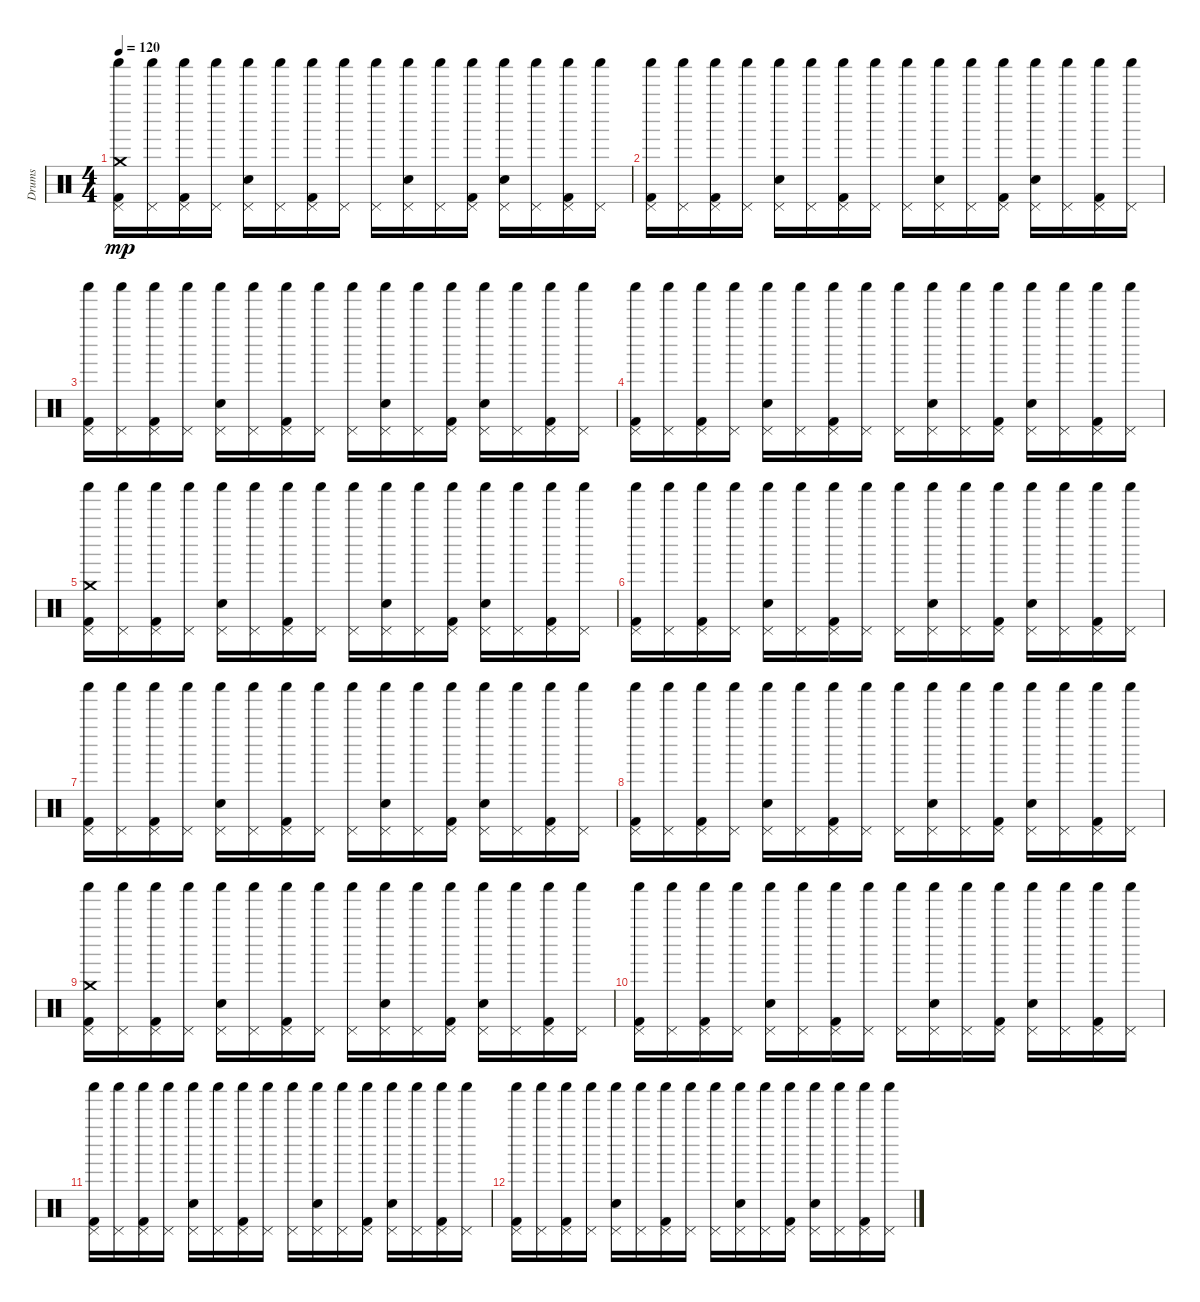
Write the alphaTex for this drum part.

\track ("Drums" "Drums") {instrument percussion}
\staff {score}
\articulation defaults
\ts (4 4)
\tempo 120
\clef neutral
\ks c
("Shaker (hit)" "Pedal Hi-Hat (hit)" "Crash medium (hit)" "Kick (hit) 2").16{dy mp} ("Shaker (hit)" "Pedal Hi-Hat (hit)").16 ("Shaker (hit)" "Pedal Hi-Hat (hit)" "Kick (hit) 2").16 ("Shaker (hit)" "Pedal Hi-Hat (hit)").16 ("Shaker (hit)" "Pedal Hi-Hat (hit)" "Electric Snare (hit)").16 ("Shaker (hit)" "Pedal Hi-Hat (hit)").16 ("Shaker (hit)" "Pedal Hi-Hat (hit)" "Kick (hit) 2").16 ("Shaker (hit)" "Pedal Hi-Hat (hit)").16 ("Shaker (hit)" "Pedal Hi-Hat (hit)").16 ("Shaker (hit)" "Pedal Hi-Hat (hit)" "Electric Snare (hit)").16 ("Shaker (hit)" "Pedal Hi-Hat (hit)").16 ("Shaker (hit)" "Pedal Hi-Hat (hit)" "Kick (hit) 2").16 ("Shaker (hit)" "Pedal Hi-Hat (hit)" "Electric Snare (hit)").16 ("Shaker (hit)" "Pedal Hi-Hat (hit)").16 ("Shaker (hit)" "Pedal Hi-Hat (hit)" "Kick (hit) 2").16 ("Shaker (hit)" "Pedal Hi-Hat (hit)").16 |
("Shaker (hit)" "Pedal Hi-Hat (hit)" "Kick (hit) 2").16 ("Shaker (hit)" "Pedal Hi-Hat (hit)").16 ("Shaker (hit)" "Pedal Hi-Hat (hit)" "Kick (hit) 2").16 ("Shaker (hit)" "Pedal Hi-Hat (hit)").16 ("Shaker (hit)" "Pedal Hi-Hat (hit)" "Electric Snare (hit)").16 ("Shaker (hit)" "Pedal Hi-Hat (hit)").16 ("Shaker (hit)" "Pedal Hi-Hat (hit)" "Kick (hit) 2").16 ("Shaker (hit)" "Pedal Hi-Hat (hit)").16 ("Shaker (hit)" "Pedal Hi-Hat (hit)").16 ("Shaker (hit)" "Pedal Hi-Hat (hit)" "Electric Snare (hit)").16 ("Shaker (hit)" "Pedal Hi-Hat (hit)").16 ("Shaker (hit)" "Pedal Hi-Hat (hit)" "Kick (hit) 2").16 ("Shaker (hit)" "Pedal Hi-Hat (hit)" "Electric Snare (hit)").16 ("Shaker (hit)" "Pedal Hi-Hat (hit)").16 ("Shaker (hit)" "Pedal Hi-Hat (hit)" "Kick (hit) 2").16 ("Shaker (hit)" "Pedal Hi-Hat (hit)").16 |
("Shaker (hit)" "Pedal Hi-Hat (hit)" "Kick (hit) 2").16 ("Shaker (hit)" "Pedal Hi-Hat (hit)").16 ("Shaker (hit)" "Pedal Hi-Hat (hit)" "Kick (hit) 2").16 ("Shaker (hit)" "Pedal Hi-Hat (hit)").16 ("Shaker (hit)" "Pedal Hi-Hat (hit)" "Electric Snare (hit)").16 ("Shaker (hit)" "Pedal Hi-Hat (hit)").16 ("Shaker (hit)" "Pedal Hi-Hat (hit)" "Kick (hit) 2").16 ("Shaker (hit)" "Pedal Hi-Hat (hit)").16 ("Shaker (hit)" "Pedal Hi-Hat (hit)").16 ("Shaker (hit)" "Pedal Hi-Hat (hit)" "Electric Snare (hit)").16 ("Shaker (hit)" "Pedal Hi-Hat (hit)").16 ("Shaker (hit)" "Pedal Hi-Hat (hit)" "Kick (hit) 2").16 ("Shaker (hit)" "Pedal Hi-Hat (hit)" "Electric Snare (hit)").16 ("Shaker (hit)" "Pedal Hi-Hat (hit)").16 ("Shaker (hit)" "Pedal Hi-Hat (hit)" "Kick (hit) 2").16 ("Shaker (hit)" "Pedal Hi-Hat (hit)").16 |
("Shaker (hit)" "Pedal Hi-Hat (hit)" "Kick (hit) 2").16 ("Shaker (hit)" "Pedal Hi-Hat (hit)").16 ("Shaker (hit)" "Pedal Hi-Hat (hit)" "Kick (hit) 2").16 ("Shaker (hit)" "Pedal Hi-Hat (hit)").16 ("Shaker (hit)" "Pedal Hi-Hat (hit)" "Electric Snare (hit)").16 ("Shaker (hit)" "Pedal Hi-Hat (hit)").16 ("Shaker (hit)" "Pedal Hi-Hat (hit)" "Kick (hit) 2").16 ("Shaker (hit)" "Pedal Hi-Hat (hit)").16 ("Shaker (hit)" "Pedal Hi-Hat (hit)").16 ("Shaker (hit)" "Pedal Hi-Hat (hit)" "Electric Snare (hit)").16 ("Shaker (hit)" "Pedal Hi-Hat (hit)").16 ("Shaker (hit)" "Pedal Hi-Hat (hit)" "Kick (hit) 2").16 ("Shaker (hit)" "Pedal Hi-Hat (hit)" "Electric Snare (hit)").16 ("Shaker (hit)" "Pedal Hi-Hat (hit)").16 ("Shaker (hit)" "Pedal Hi-Hat (hit)" "Kick (hit) 2").16 ("Shaker (hit)" "Pedal Hi-Hat (hit)").16 |
("Shaker (hit)" "Pedal Hi-Hat (hit)" "Crash medium (hit)" "Kick (hit) 2").16 ("Shaker (hit)" "Pedal Hi-Hat (hit)").16 ("Shaker (hit)" "Pedal Hi-Hat (hit)" "Kick (hit) 2").16 ("Shaker (hit)" "Pedal Hi-Hat (hit)").16 ("Shaker (hit)" "Pedal Hi-Hat (hit)" "Electric Snare (hit)").16 ("Shaker (hit)" "Pedal Hi-Hat (hit)").16 ("Shaker (hit)" "Pedal Hi-Hat (hit)" "Kick (hit) 2").16 ("Shaker (hit)" "Pedal Hi-Hat (hit)").16 ("Shaker (hit)" "Pedal Hi-Hat (hit)").16 ("Shaker (hit)" "Pedal Hi-Hat (hit)" "Electric Snare (hit)").16 ("Shaker (hit)" "Pedal Hi-Hat (hit)").16 ("Shaker (hit)" "Pedal Hi-Hat (hit)" "Kick (hit) 2").16 ("Shaker (hit)" "Pedal Hi-Hat (hit)" "Electric Snare (hit)").16 ("Shaker (hit)" "Pedal Hi-Hat (hit)").16 ("Shaker (hit)" "Pedal Hi-Hat (hit)" "Kick (hit) 2").16 ("Shaker (hit)" "Pedal Hi-Hat (hit)").16 |
("Shaker (hit)" "Pedal Hi-Hat (hit)" "Kick (hit) 2").16 ("Shaker (hit)" "Pedal Hi-Hat (hit)").16 ("Shaker (hit)" "Pedal Hi-Hat (hit)" "Kick (hit) 2").16 ("Shaker (hit)" "Pedal Hi-Hat (hit)").16 ("Shaker (hit)" "Pedal Hi-Hat (hit)" "Electric Snare (hit)").16 ("Shaker (hit)" "Pedal Hi-Hat (hit)").16 ("Shaker (hit)" "Pedal Hi-Hat (hit)" "Kick (hit) 2").16 ("Shaker (hit)" "Pedal Hi-Hat (hit)").16 ("Shaker (hit)" "Pedal Hi-Hat (hit)").16 ("Shaker (hit)" "Pedal Hi-Hat (hit)" "Electric Snare (hit)").16 ("Shaker (hit)" "Pedal Hi-Hat (hit)").16 ("Shaker (hit)" "Pedal Hi-Hat (hit)" "Kick (hit) 2").16 ("Shaker (hit)" "Pedal Hi-Hat (hit)" "Electric Snare (hit)").16 ("Shaker (hit)" "Pedal Hi-Hat (hit)").16 ("Shaker (hit)" "Pedal Hi-Hat (hit)" "Kick (hit) 2").16 ("Shaker (hit)" "Pedal Hi-Hat (hit)").16 |
("Shaker (hit)" "Pedal Hi-Hat (hit)" "Kick (hit) 2").16 ("Shaker (hit)" "Pedal Hi-Hat (hit)").16 ("Shaker (hit)" "Pedal Hi-Hat (hit)" "Kick (hit) 2").16 ("Shaker (hit)" "Pedal Hi-Hat (hit)").16 ("Shaker (hit)" "Pedal Hi-Hat (hit)" "Electric Snare (hit)").16 ("Shaker (hit)" "Pedal Hi-Hat (hit)").16 ("Shaker (hit)" "Pedal Hi-Hat (hit)" "Kick (hit) 2").16 ("Shaker (hit)" "Pedal Hi-Hat (hit)").16 ("Shaker (hit)" "Pedal Hi-Hat (hit)").16 ("Shaker (hit)" "Pedal Hi-Hat (hit)" "Electric Snare (hit)").16 ("Shaker (hit)" "Pedal Hi-Hat (hit)").16 ("Shaker (hit)" "Pedal Hi-Hat (hit)" "Kick (hit) 2").16 ("Shaker (hit)" "Pedal Hi-Hat (hit)" "Electric Snare (hit)").16 ("Shaker (hit)" "Pedal Hi-Hat (hit)").16 ("Shaker (hit)" "Pedal Hi-Hat (hit)" "Kick (hit) 2").16 ("Shaker (hit)" "Pedal Hi-Hat (hit)").16 |
("Shaker (hit)" "Pedal Hi-Hat (hit)" "Kick (hit) 2").16 ("Shaker (hit)" "Pedal Hi-Hat (hit)").16 ("Shaker (hit)" "Pedal Hi-Hat (hit)" "Kick (hit) 2").16 ("Shaker (hit)" "Pedal Hi-Hat (hit)").16 ("Shaker (hit)" "Pedal Hi-Hat (hit)" "Electric Snare (hit)").16 ("Shaker (hit)" "Pedal Hi-Hat (hit)").16 ("Shaker (hit)" "Pedal Hi-Hat (hit)" "Kick (hit) 2").16 ("Shaker (hit)" "Pedal Hi-Hat (hit)").16 ("Shaker (hit)" "Pedal Hi-Hat (hit)").16 ("Shaker (hit)" "Pedal Hi-Hat (hit)" "Electric Snare (hit)").16 ("Shaker (hit)" "Pedal Hi-Hat (hit)").16 ("Shaker (hit)" "Pedal Hi-Hat (hit)" "Kick (hit) 2").16 ("Shaker (hit)" "Pedal Hi-Hat (hit)" "Electric Snare (hit)").16 ("Shaker (hit)" "Pedal Hi-Hat (hit)").16 ("Shaker (hit)" "Pedal Hi-Hat (hit)" "Kick (hit) 2").16 ("Shaker (hit)" "Pedal Hi-Hat (hit)").16 |
("Shaker (hit)" "Pedal Hi-Hat (hit)" "Crash medium (hit)" "Kick (hit) 2").16 ("Shaker (hit)" "Pedal Hi-Hat (hit)").16 ("Shaker (hit)" "Pedal Hi-Hat (hit)" "Kick (hit) 2").16 ("Shaker (hit)" "Pedal Hi-Hat (hit)").16 ("Shaker (hit)" "Pedal Hi-Hat (hit)" "Electric Snare (hit)").16 ("Shaker (hit)" "Pedal Hi-Hat (hit)").16 ("Shaker (hit)" "Pedal Hi-Hat (hit)" "Kick (hit) 2").16 ("Shaker (hit)" "Pedal Hi-Hat (hit)").16 ("Shaker (hit)" "Pedal Hi-Hat (hit)").16 ("Shaker (hit)" "Pedal Hi-Hat (hit)" "Electric Snare (hit)").16 ("Shaker (hit)" "Pedal Hi-Hat (hit)").16 ("Shaker (hit)" "Pedal Hi-Hat (hit)" "Kick (hit) 2").16 ("Shaker (hit)" "Pedal Hi-Hat (hit)" "Electric Snare (hit)").16 ("Shaker (hit)" "Pedal Hi-Hat (hit)").16 ("Shaker (hit)" "Pedal Hi-Hat (hit)" "Kick (hit) 2").16 ("Shaker (hit)" "Pedal Hi-Hat (hit)").16 |
("Shaker (hit)" "Pedal Hi-Hat (hit)" "Kick (hit) 2").16 ("Shaker (hit)" "Pedal Hi-Hat (hit)").16 ("Shaker (hit)" "Pedal Hi-Hat (hit)" "Kick (hit) 2").16 ("Shaker (hit)" "Pedal Hi-Hat (hit)").16 ("Shaker (hit)" "Pedal Hi-Hat (hit)" "Electric Snare (hit)").16 ("Shaker (hit)" "Pedal Hi-Hat (hit)").16 ("Shaker (hit)" "Pedal Hi-Hat (hit)" "Kick (hit) 2").16 ("Shaker (hit)" "Pedal Hi-Hat (hit)").16 ("Shaker (hit)" "Pedal Hi-Hat (hit)").16 ("Shaker (hit)" "Pedal Hi-Hat (hit)" "Electric Snare (hit)").16 ("Shaker (hit)" "Pedal Hi-Hat (hit)").16 ("Shaker (hit)" "Pedal Hi-Hat (hit)" "Kick (hit) 2").16 ("Shaker (hit)" "Pedal Hi-Hat (hit)" "Electric Snare (hit)").16 ("Shaker (hit)" "Pedal Hi-Hat (hit)").16 ("Shaker (hit)" "Pedal Hi-Hat (hit)" "Kick (hit) 2").16 ("Shaker (hit)" "Pedal Hi-Hat (hit)").16 |
("Shaker (hit)" "Pedal Hi-Hat (hit)" "Kick (hit) 2").16 ("Shaker (hit)" "Pedal Hi-Hat (hit)").16 ("Shaker (hit)" "Pedal Hi-Hat (hit)" "Kick (hit) 2").16 ("Shaker (hit)" "Pedal Hi-Hat (hit)").16 ("Shaker (hit)" "Pedal Hi-Hat (hit)" "Electric Snare (hit)").16 ("Shaker (hit)" "Pedal Hi-Hat (hit)").16 ("Shaker (hit)" "Pedal Hi-Hat (hit)" "Kick (hit) 2").16 ("Shaker (hit)" "Pedal Hi-Hat (hit)").16 ("Shaker (hit)" "Pedal Hi-Hat (hit)").16 ("Shaker (hit)" "Pedal Hi-Hat (hit)" "Electric Snare (hit)").16 ("Shaker (hit)" "Pedal Hi-Hat (hit)").16 ("Shaker (hit)" "Pedal Hi-Hat (hit)" "Kick (hit) 2").16 ("Shaker (hit)" "Pedal Hi-Hat (hit)" "Electric Snare (hit)").16 ("Shaker (hit)" "Pedal Hi-Hat (hit)").16 ("Shaker (hit)" "Pedal Hi-Hat (hit)" "Kick (hit) 2").16 ("Shaker (hit)" "Pedal Hi-Hat (hit)").16 |
("Shaker (hit)" "Pedal Hi-Hat (hit)" "Kick (hit) 2").16 ("Shaker (hit)" "Pedal Hi-Hat (hit)").16 ("Shaker (hit)" "Pedal Hi-Hat (hit)" "Kick (hit) 2").16 ("Shaker (hit)" "Pedal Hi-Hat (hit)").16 ("Shaker (hit)" "Pedal Hi-Hat (hit)" "Electric Snare (hit)").16 ("Shaker (hit)" "Pedal Hi-Hat (hit)").16 ("Shaker (hit)" "Pedal Hi-Hat (hit)" "Kick (hit) 2").16 ("Shaker (hit)" "Pedal Hi-Hat (hit)").16 ("Shaker (hit)" "Pedal Hi-Hat (hit)").16 ("Shaker (hit)" "Pedal Hi-Hat (hit)" "Electric Snare (hit)").16 ("Shaker (hit)" "Pedal Hi-Hat (hit)").16 ("Shaker (hit)" "Pedal Hi-Hat (hit)" "Kick (hit) 2").16 ("Shaker (hit)" "Pedal Hi-Hat (hit)" "Electric Snare (hit)").16 ("Shaker (hit)" "Pedal Hi-Hat (hit)").16 ("Shaker (hit)" "Pedal Hi-Hat (hit)" "Kick (hit) 2").16 ("Shaker (hit)" "Pedal Hi-Hat (hit)").16
